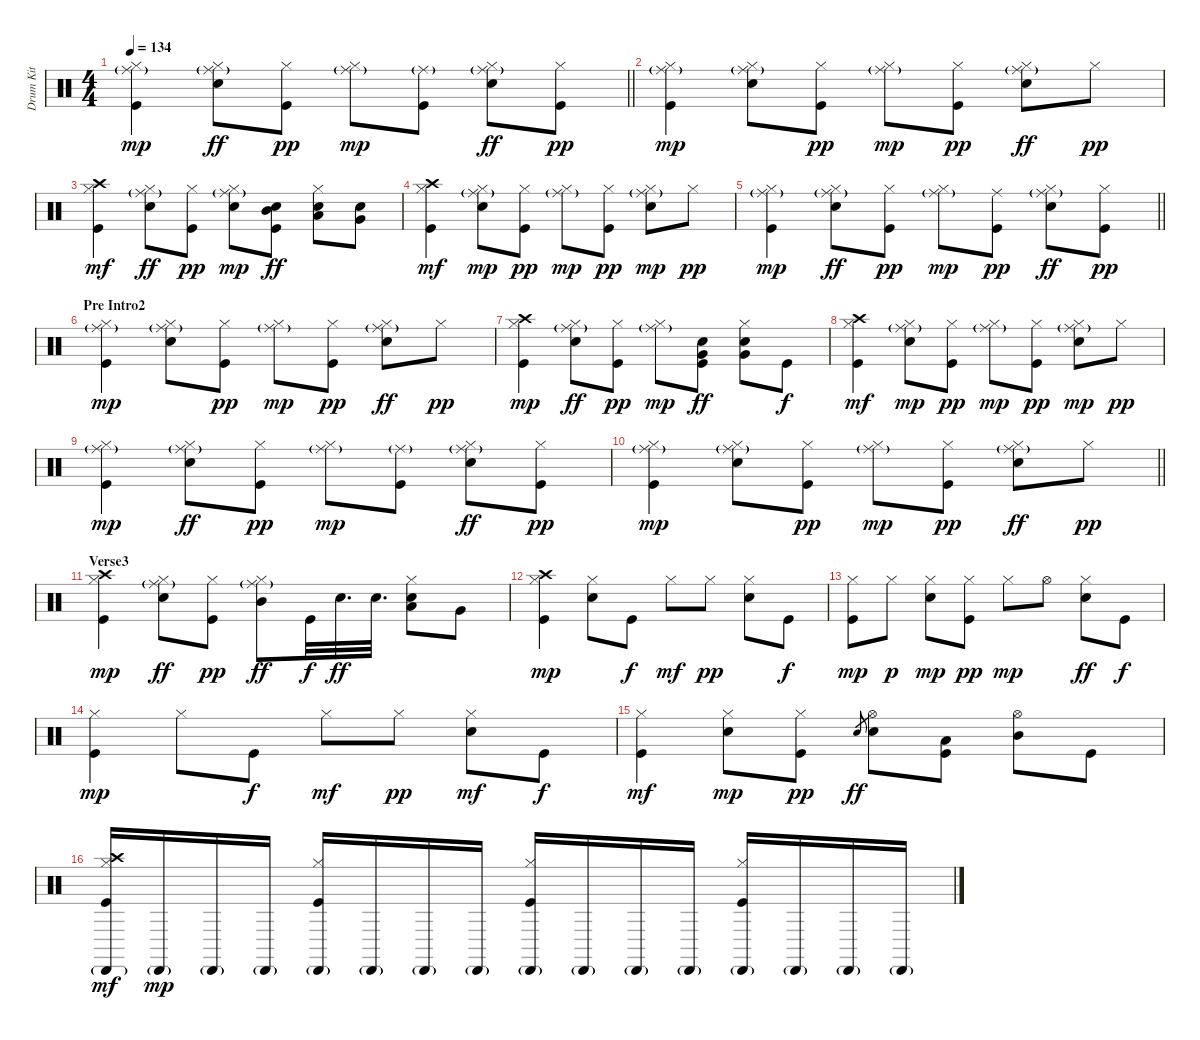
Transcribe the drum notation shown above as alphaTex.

\track ("Drum Kit" "Drum Kit") {instrument percussion}
\staff {score}
\articulation defaults
\ts (4 4)
\tempo 134
\clef neutral
\barLineRight lightlight
\ks c
("Ride (middle)"{g} "Hi-Hat (closed)" "Kick (hit)").4{dy mp} ("Ride (middle)"{g} "Hi-Hat (closed)" "Electric Snare (hit)").8{dy ff} ("Hi-Hat (closed)" "Kick (hit)").8{dy pp} ("Ride (middle)"{g} "Hi-Hat (closed)").8{dy mp} ("Kick (hit)" "Ride (middle)"{g}).8 ("Ride (middle)"{g} "Hi-Hat (closed)" "Electric Snare (hit)").8{dy ff} ("Hi-Hat (closed)" "Kick (hit)").8{dy pp} |
("Ride (middle)"{g} "Kick (hit)" "Hi-Hat (closed)").4{dy mp} ("Hi-Hat (closed)" "Electric Snare (hit)" "Ride (middle)"{g}).8 ("Kick (hit)" "Hi-Hat (closed)").8{dy pp} ("Hi-Hat (closed)" "Ride (middle)"{g}).8{dy mp} ("Hi-Hat (closed)" "Kick (hit)").8{dy pp} ("Ride (middle)"{g} "Hi-Hat (closed)" "Electric Snare (hit)").8{dy ff} "Hi-Hat (closed)".8{dy pp} |
("Kick (hit)" "Hi-Hat (closed)" "Crash high (hit)").4{dy mf} ("Ride (middle)"{g} "Hi-Hat (closed)" "Electric Snare (hit)").8{dy ff} ("Hi-Hat (closed)" "Kick (hit)").8{dy pp} ("Electric Snare (hit)" "Ride (middle)"{g} "Hi-Hat (closed)").8{dy mp} ("Electric Snare (hit)" "Mid Tom (hit)" "Kick (hit)").8{dy ff} ("Electric Snare (hit)" "Hi-Hat (closed)" "Low Tom (hit)").8 ("Electric Snare (hit)" "Very Low Tom (hit)").8 |
("Kick (hit)" "Hi-Hat (closed)" "Crash high (hit)").4{dy mf} ("Hi-Hat (closed)" "Electric Snare (hit)" "Ride (middle)"{g}).8{dy mp} ("Kick (hit)" "Hi-Hat (closed)").8{dy pp} ("Hi-Hat (closed)" "Ride (middle)"{g}).8{dy mp} ("Hi-Hat (closed)" "Kick (hit)").8{dy pp} ("Hi-Hat (closed)" "Electric Snare (hit)" "Ride (middle)"{g}).8{dy mp} "Hi-Hat (closed)".8{dy pp} |
\barLineRight lightlight
("Ride (middle)"{g} "Hi-Hat (closed)" "Kick (hit)").4{dy mp} ("Ride (middle)"{g} "Hi-Hat (closed)" "Electric Snare (hit)").8{dy ff} ("Hi-Hat (closed)" "Kick (hit)").8{dy pp} ("Ride (middle)"{g} "Hi-Hat (closed)").8{dy mp} ("Kick (hit)" "Ride (middle)").8{dy pp} ("Ride (middle)"{g} "Hi-Hat (closed)" "Electric Snare (hit)").8{dy ff} ("Hi-Hat (closed)" "Kick (hit)").8{dy pp} |
\section ("" "Pre Intro2")
("Ride (middle)"{g} "Kick (hit)" "Hi-Hat (closed)").4{dy mp} ("Hi-Hat (closed)" "Electric Snare (hit)" "Ride (middle)"{g}).8 ("Kick (hit)" "Hi-Hat (closed)").8{dy pp} ("Hi-Hat (closed)" "Ride (middle)"{g}).8{dy mp} ("Hi-Hat (closed)" "Kick (hit)").8{dy pp} ("Ride (middle)"{g} "Hi-Hat (closed)" "Electric Snare (hit)").8{dy ff} "Hi-Hat (closed)".8{dy pp} |
("Crash high (hit)" "Hi-Hat (closed)" "Kick (hit)").4{dy mp} ("Ride (middle)"{g} "Hi-Hat (closed)" "Electric Snare (hit)").8{dy ff} ("Hi-Hat (closed)" "Kick (hit)").8{dy pp} ("Ride (middle)"{g} "Hi-Hat (closed)").8{dy mp} ("Very Low Tom (hit)" "Electric Snare (hit)" "Kick (hit)").8{dy ff} ("Very Low Tom (hit)" "Hi-Hat (closed)" "Electric Snare (hit)").8 "Kick (hit)".8{dy f} |
("Kick (hit)" "Hi-Hat (closed)" "Crash high (hit)").4{dy mf} ("Hi-Hat (closed)" "Electric Snare (hit)" "Ride (middle)"{g}).8{dy mp} ("Kick (hit)" "Hi-Hat (closed)").8{dy pp} ("Hi-Hat (closed)" "Ride (middle)"{g}).8{dy mp} ("Hi-Hat (closed)" "Kick (hit)").8{dy pp} ("Hi-Hat (closed)" "Electric Snare (hit)" "Ride (middle)"{g}).8{dy mp} "Hi-Hat (closed)".8{dy pp} |
("Ride (middle)"{g} "Hi-Hat (closed)" "Kick (hit)").4{dy mp} ("Ride (middle)"{g} "Hi-Hat (closed)" "Electric Snare (hit)").8{dy ff} ("Hi-Hat (closed)" "Kick (hit)").8{dy pp} ("Ride (middle)"{g} "Hi-Hat (closed)").8{dy mp} ("Kick (hit)" "Ride (middle)"{g}).8 ("Ride (middle)"{g} "Hi-Hat (closed)" "Electric Snare (hit)").8{dy ff} ("Hi-Hat (closed)" "Kick (hit)").8{dy pp} |
\barLineRight lightlight
("Ride (middle)"{g} "Kick (hit)" "Hi-Hat (closed)").4{dy mp} ("Hi-Hat (closed)" "Electric Snare (hit)" "Ride (middle)"{g}).8 ("Kick (hit)" "Hi-Hat (closed)").8{dy pp} ("Hi-Hat (closed)" "Ride (middle)"{g}).8{dy mp} ("Hi-Hat (closed)" "Kick (hit)").8{dy pp} ("Ride (middle)"{g} "Hi-Hat (closed)" "Electric Snare (hit)").8{dy ff} "Hi-Hat (closed)".8{dy pp} |
\section ("" "Verse3")
("Crash high (hit)" "Hi-Hat (closed)" "Kick (hit)").4{dy mp} ("Ride (middle)"{g} "Hi-Hat (closed)" "Electric Snare (hit)").8{dy ff} ("Hi-Hat (closed)" "Kick (hit)").8{dy pp} ("Ride (middle)"{g} "Hi-Hat (closed)" "Mid Tom (hit)").8{dy ff} "Kick (hit)".32{dy f} "Electric Snare (hit)".32{d dy ff} "Electric Snare (hit)".32{d} ("Electric Snare (hit)" "Hi-Hat (closed)" "Low Tom (hit)").8 "Very Low Tom (hit)".8 |
("Crash high (hit)" "Kick (hit)" "Hi-Hat (closed)").4{dy mp} ("Electric Snare (hit)" "Hi-Hat (closed)").8 "Kick (hit)".8{dy f} "Hi-Hat (closed)".8{dy mf} "Hi-Hat (closed)".8{dy pp} ("Electric Snare (hit)" "Hi-Hat (closed)").8 "Kick (hit)".8{dy f} |
("Hi-Hat (closed)" "Kick (hit)").8{dy mp} "Hi-Hat (closed)".8{dy p} ("Electric Snare (hit)" "Hi-Hat (closed)").8{dy mp} ("Hi-Hat (closed)" "Kick (hit)").8{dy pp} "Hi-Hat (closed)".8{dy mp} "Hi-Hat (open)".8 ("Hi-Hat (closed)" "Electric Snare (hit)").8{dy ff} "Kick (hit)".8{dy f} |
("Kick (hit)" "Hi-Hat (closed)").4{dy mp} "Hi-Hat (closed)".8 "Kick (hit)".8{dy f} "Hi-Hat (closed)".8{dy mf} "Hi-Hat (closed)".8{dy pp} ("Electric Snare (hit)" "Hi-Hat (closed)").8{dy mf} "Kick (hit)".8{dy f} |
("Hi-Hat (closed)" "Kick (hit)").4{dy mf} ("Electric Snare (hit)" "Hi-Hat (closed)").8{dy mp} ("Hi-Hat (closed)" "Kick (hit)").8{dy pp} "Electric Snare (hit)".8{gr dy ff} ("Electric Snare (hit)" "Hi-Hat (open)").8 ("Kick (hit)" "Low Tom (hit)").8 ("Hi-Hat (open)" "Mid Tom (hit)").8 "Kick (hit)".8 |
("Kick (hit)" "Hi-Hat (closed)" "Cabasa (hit)"{g} "Crash high (hit)").16{dy mf} "Cabasa (hit)"{g}.16{dy mp} "Cabasa (hit)"{g}.16 "Cabasa (hit)"{g}.16 ("Cabasa (hit)"{g} "Hi-Hat (closed)" "Kick (hit)").16 "Cabasa (hit)"{g}.16 "Cabasa (hit)"{g}.16 "Cabasa (hit)"{g}.16 ("Cabasa (hit)"{g} "Hi-Hat (closed)" "Kick (hit)").16 "Cabasa (hit)"{g}.16 "Cabasa (hit)"{g}.16 "Cabasa (hit)"{g}.16 ("Cabasa (hit)"{g} "Hi-Hat (closed)" "Kick (hit)").16 "Cabasa (hit)"{g}.16 "Cabasa (hit)"{g}.16 "Cabasa (hit)"{g}.16
